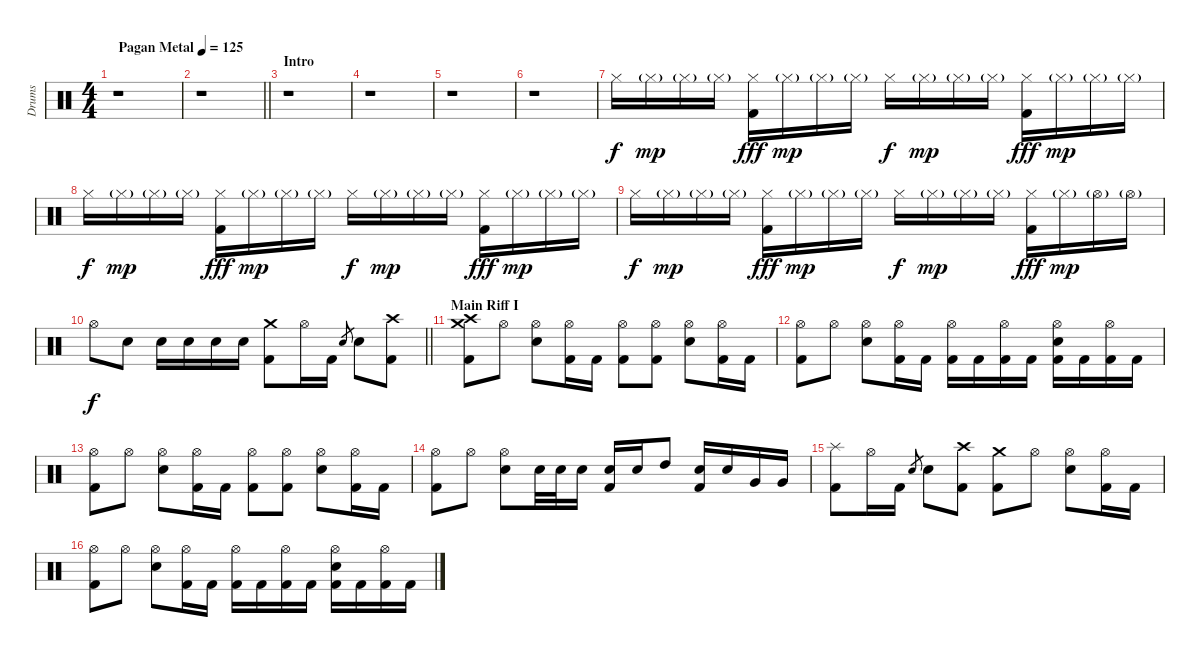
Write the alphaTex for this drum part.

\track ("Drums" "Drums") {instrument percussion}
\staff {score}
\articulation defaults
\ts (4 4)
\tempo (125 "Pagan Metal")
\clef neutral
\ks c
r.1{dy f} |
\barLineRight lightlight
r.1 |
\section ("" "Intro")
r.1 |
r.1 |
r.1 |
r.1 |
"Hi-Hat (closed)".16{volume 14 balance 8} "Hi-Hat (closed)"{g}.16{dy mp} "Hi-Hat (closed)"{g}.16 "Hi-Hat (closed)"{g}.16 ("Hi-Hat (closed)" "Kick (hit) 2").16{dy fff} "Hi-Hat (closed)"{g}.16{dy mp} "Hi-Hat (closed)"{g}.16 "Hi-Hat (closed)"{g}.16 "Hi-Hat (closed)".16{dy f} "Hi-Hat (closed)"{g}.16{dy mp} "Hi-Hat (closed)"{g}.16 "Hi-Hat (closed)"{g}.16 ("Hi-Hat (closed)" "Kick (hit) 2").16{dy fff} "Hi-Hat (closed)"{g}.16{dy mp} "Hi-Hat (closed)"{g}.16 "Hi-Hat (closed)"{g}.16 |
"Hi-Hat (closed)".16{dy f} "Hi-Hat (closed)"{g}.16{dy mp} "Hi-Hat (closed)"{g}.16 "Hi-Hat (closed)"{g}.16 ("Hi-Hat (closed)" "Kick (hit) 2").16{dy fff} "Hi-Hat (closed)"{g}.16{dy mp} "Hi-Hat (closed)"{g}.16 "Hi-Hat (closed)"{g}.16 "Hi-Hat (closed)".16{dy f} "Hi-Hat (closed)"{g}.16{dy mp} "Hi-Hat (closed)"{g}.16 "Hi-Hat (closed)"{g}.16 ("Hi-Hat (closed)" "Kick (hit) 2").16{dy fff} "Hi-Hat (closed)"{g}.16{dy mp} "Hi-Hat (closed)"{g}.16 "Hi-Hat (closed)"{g}.16 |
"Hi-Hat (closed)".16{dy f} "Hi-Hat (closed)"{g}.16{dy mp} "Hi-Hat (closed)"{g}.16 "Hi-Hat (closed)"{g}.16 ("Hi-Hat (closed)" "Kick (hit) 2").16{dy fff} "Hi-Hat (closed)"{g}.16{dy mp} "Hi-Hat (closed)"{g}.16 "Hi-Hat (closed)"{g}.16 "Hi-Hat (closed)".16{dy f} "Hi-Hat (closed)"{g}.16{dy mp} "Hi-Hat (closed)"{g}.16 "Hi-Hat (closed)"{g}.16 ("Hi-Hat (closed)" "Kick (hit) 2").16{dy fff} "Hi-Hat (closed)"{g}.16{dy mp} "Hi-Hat (open)"{g}.16 "Hi-Hat (open)"{g}.16 |
\barLineRight lightlight "Hi-Hat (open)".8{dy f volume 16} "Electric Snare (hit)".8 "Electric Snare (hit)".16 "Electric Snare (hit)".16 "Electric Snare (hit)".16 "Electric Snare (hit)".16
("Crash medium (hit)" "Kick (hit) 2").8 "Hi-Hat (open)".16 "Kick (hit) 2".16 "Electric Snare (hit)".8{gr} "Electric Snare (hit)".8 ("Crash high (hit)" "Kick (hit) 2").8 |
\section ("" "Main Riff I")
("Crash medium (hit)" "Crash high (hit)" "Kick (hit) 2").8 "Hi-Hat (open)".8 ("Hi-Hat (open)" "Electric Snare (hit)").8 ("Hi-Hat (open)" "Kick (hit) 2").16 "Kick (hit) 2".16 ("Hi-Hat (open)" "Kick (hit) 2").8 ("Hi-Hat (open)" "Kick (hit) 2").8 ("Hi-Hat (open)" "Electric Snare (hit)").8 ("Hi-Hat (open)" "Kick (hit) 2").16 "Kick (hit) 2".16 |
("Hi-Hat (open)" "Kick (hit) 2").8 "Hi-Hat (open)".8 ("Hi-Hat (open)" "Electric Snare (hit)").8 ("Hi-Hat (open)" "Kick (hit) 2").16 "Kick (hit) 2".16 ("Hi-Hat (open)" "Kick (hit) 2").16 "Kick (hit) 2".16 ("Hi-Hat (open)" "Kick (hit) 2").16 "Kick (hit) 2".16 ("Hi-Hat (open)" "Electric Snare (hit)" "Kick (hit) 2").16 "Kick (hit) 2".16 ("Hi-Hat (open)" "Kick (hit) 2").16 "Kick (hit) 2".16 |
("Hi-Hat (open)" "Kick (hit) 2").8 "Hi-Hat (open)".8 ("Hi-Hat (open)" "Electric Snare (hit)").8 ("Hi-Hat (open)" "Kick (hit) 2").16 "Kick (hit) 2".16 ("Hi-Hat (open)" "Kick (hit) 2").8 ("Hi-Hat (open)" "Kick (hit) 2").8 ("Hi-Hat (open)" "Electric Snare (hit)").8 ("Hi-Hat (open)" "Kick (hit) 2").16 "Kick (hit) 2".16 |
("Hi-Hat (open)" "Kick (hit) 2").8 "Hi-Hat (open)".8 ("Hi-Hat (open)" "Electric Snare (hit)").8 "Electric Snare (hit)".32 "Electric Snare (hit)".32 "Electric Snare (hit)".16 ("Electric Snare (hit)" "Kick (hit) 2").16 "Electric Snare (hit)".16 "High Tom (hit)".8 ("Electric Snare (hit)" "Kick (hit) 2").16 "Electric Snare (hit)".16 "Very Low Tom (hit)".16 "Very Low Tom (hit)".16 |
("Splash (hit)" "Kick (hit) 2").8 "Hi-Hat (open)".16 "Kick (hit) 2".16 "Electric Snare (hit)".8{gr} "Electric Snare (hit)".8 ("Crash high (hit)" "Kick (hit) 2").8 ("Crash medium (hit)" "Kick (hit) 2").8 "Hi-Hat (open)".8 ("Hi-Hat (open)" "Electric Snare (hit)").8 ("Hi-Hat (open)" "Kick (hit) 2").16 "Kick (hit) 2".16 |
("Hi-Hat (open)" "Kick (hit) 2").8 "Hi-Hat (open)".8 ("Hi-Hat (open)" "Electric Snare (hit)").8 ("Hi-Hat (open)" "Kick (hit) 2").16 "Kick (hit) 2".16 ("Hi-Hat (open)" "Kick (hit) 2").16 "Kick (hit) 2".16 ("Hi-Hat (open)" "Kick (hit) 2").16 "Kick (hit) 2".16 ("Hi-Hat (open)" "Electric Snare (hit)" "Kick (hit) 2").16 "Kick (hit) 2".16 ("Hi-Hat (open)" "Kick (hit) 2").16 "Kick (hit) 2".16
